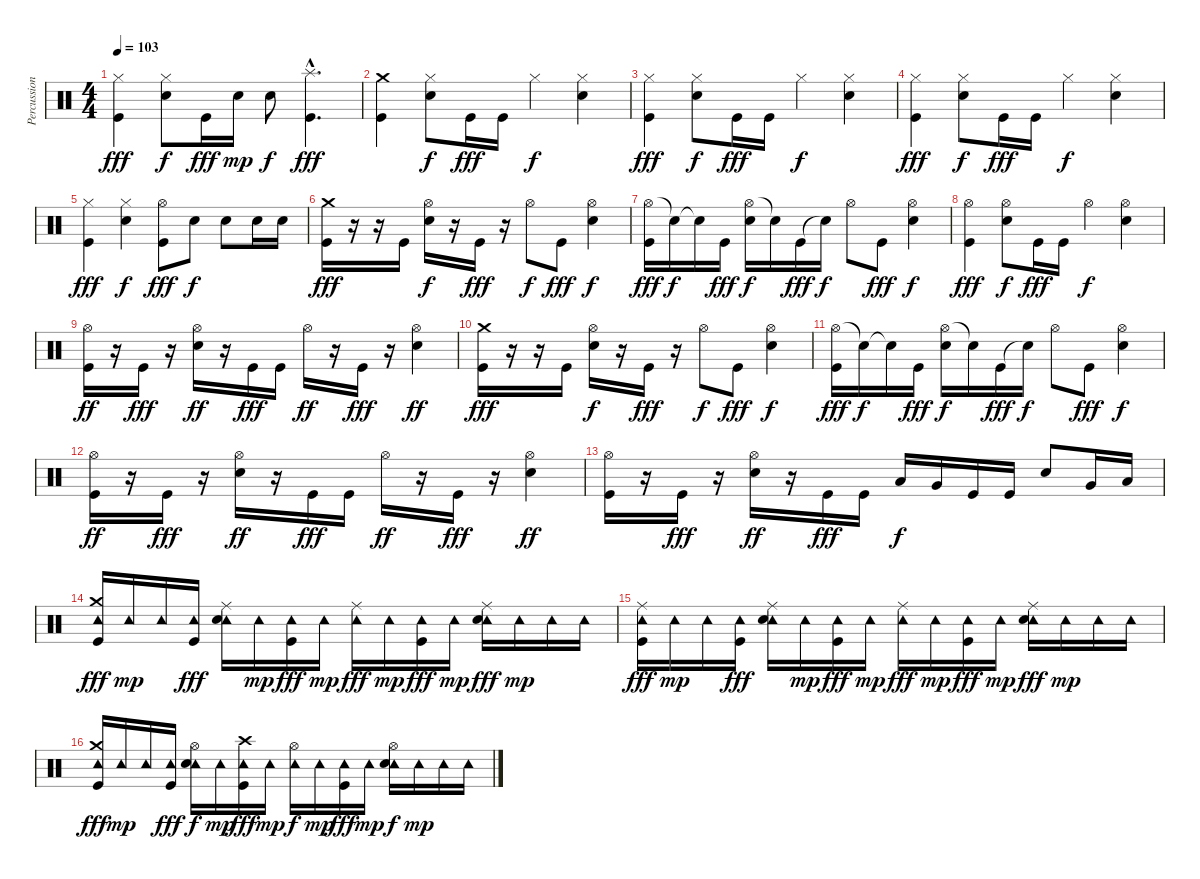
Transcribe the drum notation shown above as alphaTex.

\track ("Percussion" "Percussion") {instrument percussion}
\staff {score}
\articulation defaults
\ts (4 4)
\tempo 103
\clef neutral
\ks c
("Hi-Hat (closed)" "Kick (hit)").4{dy fff} ("Hi-Hat (closed)" "Electric Snare (hit)").8{dy f} "Kick (hit)".16{dy fff} "Electric Snare (hit)".16{dy mp} "Electric Snare (hit)".8{dy f} ("Splash (hit)"{hac} "Kick (hit)"{hac}).4{d dy fff} |
("Crash medium (hit)" "Kick (hit)").4 ("Hi-Hat (closed)" "Electric Snare (hit)").8{dy f} "Kick (hit)".16{dy fff} "Kick (hit)".16 "Hi-Hat (closed)".4{dy f} ("Hi-Hat (closed)" "Electric Snare (hit)").4 |
("Hi-Hat (closed)" "Kick (hit)").4{dy fff} ("Hi-Hat (closed)" "Electric Snare (hit)").8{dy f} "Kick (hit)".16{dy fff} "Kick (hit)".16 "Hi-Hat (closed)".4{dy f} ("Hi-Hat (closed)" "Electric Snare (hit)").4 |
("Hi-Hat (closed)" "Kick (hit)").4{dy fff} ("Hi-Hat (closed)" "Electric Snare (hit)").8{dy f} "Kick (hit)".16{dy fff} "Kick (hit)".16 "Hi-Hat (closed)".4{dy f} ("Hi-Hat (closed)" "Electric Snare (hit)").4 |
("Hi-Hat (closed)" "Kick (hit)").4{dy fff} ("Hi-Hat (closed)" "Electric Snare (hit)").4{dy f} ("Hi-Hat (open)" "Kick (hit)").8{dy fff} "Electric Snare (hit)".8{dy f} "Electric Snare (hit)".8 "Electric Snare (hit)".16 "Electric Snare (hit)".16 |
("Crash medium (hit)" "Kick (hit)").16{dy fff} r.16 r.16 "Kick (hit)".16 ("Hi-Hat (open)" "Electric Snare (hit)").16{dy f} r.16 "Kick (hit)".16{dy fff} r.16 "Hi-Hat (open)".8{dy f} "Kick (hit)".8{dy fff} ("Hi-Hat (open)" "Electric Snare (hit)").4{dy f} |
("Hi-Hat (open)" "Kick (hit)").16{dy fff} "Snare (hit)"{t}.16{dy f} "Snare (hit)"{t}.16 "Kick (hit)".16{dy fff} ("Hi-Hat (open)" "Electric Snare (hit)").16{dy f} "Snare (hit)"{t}.16 "Kick (hit)".16{dy fff} "Snare (hit)"{t}.16{dy f} "Hi-Hat (open)".8 "Kick (hit)".8{dy fff} ("Hi-Hat (open)" "Electric Snare (hit)").4{dy f} |
("Hi-Hat (open)" "Kick (hit)").4{dy fff} ("Hi-Hat (open)" "Electric Snare (hit)").8{dy f} "Kick (hit)".16{dy fff} "Kick (hit)".16 "Hi-Hat (open)".4{dy f} ("Hi-Hat (open)" "Electric Snare (hit)").4 |
("Kick (hit)" "Hi-Hat (open)").16{dy ff} r.16 "Kick (hit)".16{dy fff} r.16 ("Electric Snare (hit)" "Hi-Hat (open)").16{dy ff} r.16 "Kick (hit)".16{dy fff} "Kick (hit)".16 "Hi-Hat (open)".16{dy ff} r.16 "Kick (hit)".16{dy fff} r.16 ("Electric Snare (hit)" "Hi-Hat (open)").4{dy ff} |
("Crash medium (hit)" "Kick (hit)").16{dy fff} r.16 r.16 "Kick (hit)".16 ("Hi-Hat (open)" "Electric Snare (hit)").16{dy f} r.16 "Kick (hit)".16{dy fff} r.16 "Hi-Hat (open)".8{dy f} "Kick (hit)".8{dy fff} ("Hi-Hat (open)" "Electric Snare (hit)").4{dy f} |
("Hi-Hat (open)" "Kick (hit)").16{dy fff} "Snare (hit)"{t}.16{dy f} "Snare (hit)"{t}.16 "Kick (hit)".16{dy fff} ("Hi-Hat (open)" "Electric Snare (hit)").16{dy f} "Snare (hit)"{t}.16 "Kick (hit)".16{dy fff} "Snare (hit)"{t}.16{dy f} "Hi-Hat (open)".8 "Kick (hit)".8{dy fff} ("Hi-Hat (open)" "Electric Snare (hit)").4{dy f} |
("Kick (hit)" "Hi-Hat (open)").16{dy ff} r.16 "Kick (hit)".16{dy fff} r.16 ("Electric Snare (hit)" "Hi-Hat (open)").16{dy ff} r.16 "Kick (hit)".16{dy fff} "Kick (hit)".16 "Hi-Hat (open)".16{dy ff} r.16 "Kick (hit)".16{dy fff} r.16 ("Electric Snare (hit)" "Hi-Hat (open)").4{dy ff} |
("Kick (hit)" "Hi-Hat (open)").16 r.16 "Kick (hit)".16{dy fff} r.16 ("Electric Snare (hit)" "Hi-Hat (open)").16{dy ff} r.16 "Kick (hit)".16{dy fff} "Kick (hit)".16 "Low Tom (hit)".16{dy f} "Very Low Tom (hit)".16 "Kick (hit)".16 "Kick (hit)".16 "Electric Snare (hit)".8 "Very Low Tom (hit)".16 "Low Floor Tom (hit)".16 |
("Tambourine (hit)" "Kick (hit)" "Crash medium (hit)").16{dy fff} "Tambourine (hit)".16{dy mp} "Tambourine (hit)".16 ("Tambourine (hit)" "Kick (hit)").16{dy fff} ("Tambourine (hit)" "Electric Snare (hit)" "Ride (middle)").16 "Tambourine (hit)".16{dy mp} ("Tambourine (hit)" "Kick (hit)").16{dy fff} "Tambourine (hit)".16{dy mp} ("Tambourine (hit)" "Ride (middle)").16{dy fff} "Tambourine (hit)".16{dy mp} ("Tambourine (hit)" "Kick (hit)").16{dy fff} "Tambourine (hit)".16{dy mp} ("Tambourine (hit)" "Electric Snare (hit)" "Ride (middle)").16{dy fff} "Tambourine (hit)".16{dy mp} "Tambourine (hit)".16 "Tambourine (hit)".16 |
("Tambourine (hit)" "Kick (hit)" "Ride (middle)").16{dy fff} "Tambourine (hit)".16{dy mp} "Tambourine (hit)".16 ("Tambourine (hit)" "Kick (hit)").16{dy fff} ("Tambourine (hit)" "Electric Snare (hit)" "Ride (middle)").16 "Tambourine (hit)".16{dy mp} ("Tambourine (hit)" "Kick (hit)").16{dy fff} "Tambourine (hit)".16{dy mp} ("Tambourine (hit)" "Ride (middle)").16{dy fff} "Tambourine (hit)".16{dy mp} ("Tambourine (hit)" "Kick (hit)").16{dy fff} "Tambourine (hit)".16{dy mp} ("Tambourine (hit)" "Electric Snare (hit)" "Ride (middle)").16{dy fff} "Tambourine (hit)".16{dy mp} "Tambourine (hit)".16 "Tambourine (hit)".16 |
("Tambourine (hit)" "Kick (hit)" "Crash medium (hit)").16{dy fff} "Tambourine (hit)".16{dy mp} "Tambourine (hit)".16 ("Tambourine (hit)" "Kick (hit)").16{dy fff} ("Tambourine (hit)" "Electric Snare (hit)" "Hi-Hat (open)").16{dy f} "Tambourine (hit)".16{dy mp} ("Tambourine (hit)" "Kick (hit)" "Crash high (hit)").16{dy fff} "Tambourine (hit)".16{dy mp} ("Tambourine (hit)" "Hi-Hat (open)").16{dy f} "Tambourine (hit)".16{dy mp} ("Tambourine (hit)" "Kick (hit)").16{dy fff} "Tambourine (hit)".16{dy mp} ("Tambourine (hit)" "Electric Snare (hit)" "Hi-Hat (open)").16{dy f} "Tambourine (hit)".16{dy mp} "Tambourine (hit)".16 "Tambourine (hit)".16
